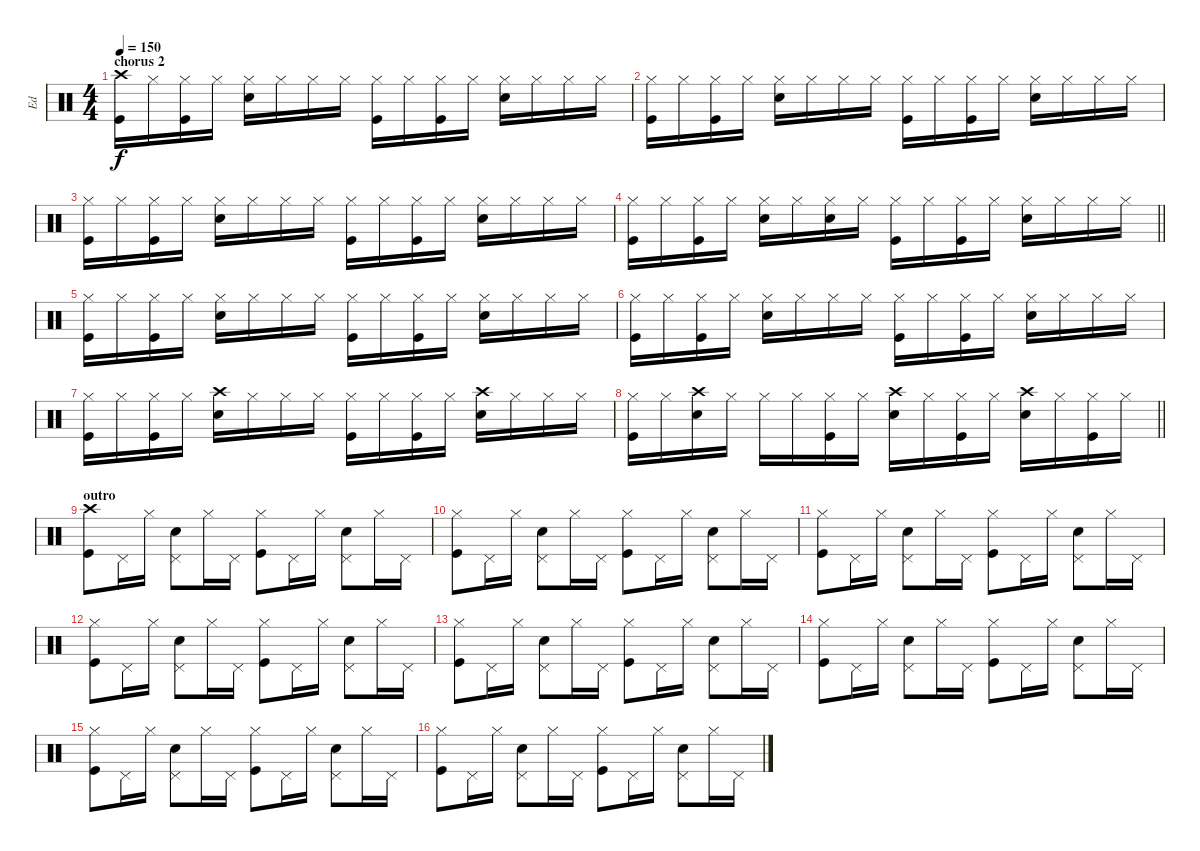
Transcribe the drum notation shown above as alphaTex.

\track ("Ed" "Ed") {instrument percussion}
\staff {score}
\articulation defaults
\ts (4 4)
\section ("" "chorus 2")
\tempo 150
\clef neutral
\ks c
("Crash high (hit)" "Kick (hit)").16{dy f} "Hi-Hat (closed)".16 ("Hi-Hat (closed)" "Kick (hit)").16 "Hi-Hat (closed)".16 ("Hi-Hat (closed)" "Electric Snare (hit)").16 "Hi-Hat (closed)".16 "Hi-Hat (closed)".16 "Hi-Hat (closed)".16 ("Hi-Hat (closed)" "Kick (hit)").16 "Hi-Hat (closed)".16 ("Hi-Hat (closed)" "Kick (hit)").16 "Hi-Hat (closed)".16 ("Hi-Hat (closed)" "Electric Snare (hit)").16 "Hi-Hat (closed)".16 "Hi-Hat (closed)".16 "Hi-Hat (closed)".16 |
("Hi-Hat (closed)" "Kick (hit)").16 "Hi-Hat (closed)".16 ("Hi-Hat (closed)" "Kick (hit)").16 "Hi-Hat (closed)".16 ("Hi-Hat (closed)" "Electric Snare (hit)").16 "Hi-Hat (closed)".16 "Hi-Hat (closed)".16 "Hi-Hat (closed)".16 ("Hi-Hat (closed)" "Kick (hit)").16 "Hi-Hat (closed)".16 ("Hi-Hat (closed)" "Kick (hit)").16 "Hi-Hat (closed)".16 ("Hi-Hat (closed)" "Electric Snare (hit)").16 "Hi-Hat (closed)".16 "Hi-Hat (closed)".16 "Hi-Hat (closed)".16 |
("Hi-Hat (closed)" "Kick (hit)").16 "Hi-Hat (closed)".16 ("Hi-Hat (closed)" "Kick (hit)").16 "Hi-Hat (closed)".16 ("Hi-Hat (closed)" "Electric Snare (hit)").16 "Hi-Hat (closed)".16 "Hi-Hat (closed)".16 "Hi-Hat (closed)".16 ("Hi-Hat (closed)" "Kick (hit)").16 "Hi-Hat (closed)".16 ("Hi-Hat (closed)" "Kick (hit)").16 "Hi-Hat (closed)".16 ("Hi-Hat (closed)" "Electric Snare (hit)").16 "Hi-Hat (closed)".16 "Hi-Hat (closed)".16 "Hi-Hat (closed)".16 |
\barLineRight lightlight
("Hi-Hat (closed)" "Kick (hit)").16 "Hi-Hat (closed)".16 ("Hi-Hat (closed)" "Kick (hit)").16 "Hi-Hat (closed)".16 ("Hi-Hat (closed)" "Electric Snare (hit)").16 "Hi-Hat (closed)".16 ("Hi-Hat (closed)" "Electric Snare (hit)").16 "Hi-Hat (closed)".16 ("Hi-Hat (closed)" "Kick (hit)").16 "Hi-Hat (closed)".16 ("Hi-Hat (closed)" "Kick (hit)").16 "Hi-Hat (closed)".16 ("Hi-Hat (closed)" "Electric Snare (hit)").16 "Hi-Hat (closed)".16 "Hi-Hat (closed)".16 "Hi-Hat (closed)".16 |
("Hi-Hat (closed)" "Kick (hit)").16 "Hi-Hat (closed)".16 ("Hi-Hat (closed)" "Kick (hit)").16 "Hi-Hat (closed)".16 ("Hi-Hat (closed)" "Electric Snare (hit)").16 "Hi-Hat (closed)".16 "Hi-Hat (closed)".16 "Hi-Hat (closed)".16 ("Hi-Hat (closed)" "Kick (hit)").16 "Hi-Hat (closed)".16 ("Hi-Hat (closed)" "Kick (hit)").16 "Hi-Hat (closed)".16 ("Hi-Hat (closed)" "Electric Snare (hit)").16 "Hi-Hat (closed)".16 "Hi-Hat (closed)".16 "Hi-Hat (closed)".16 |
("Hi-Hat (closed)" "Kick (hit)").16 "Hi-Hat (closed)".16 ("Hi-Hat (closed)" "Kick (hit)").16 "Hi-Hat (closed)".16 ("Hi-Hat (closed)" "Electric Snare (hit)").16 "Hi-Hat (closed)".16 "Hi-Hat (closed)".16 "Hi-Hat (closed)".16 ("Hi-Hat (closed)" "Kick (hit)").16 "Hi-Hat (closed)".16 ("Hi-Hat (closed)" "Kick (hit)").16 "Hi-Hat (closed)".16 ("Hi-Hat (closed)" "Electric Snare (hit)").16 "Hi-Hat (closed)".16 "Hi-Hat (closed)".16 "Hi-Hat (closed)".16 |
("Hi-Hat (closed)" "Kick (hit)").16 "Hi-Hat (closed)".16 ("Hi-Hat (closed)" "Kick (hit)").16 "Hi-Hat (closed)".16 ("Crash high (hit)" "Electric Snare (hit)").16 "Hi-Hat (closed)".16 "Hi-Hat (closed)".16 "Hi-Hat (closed)".16 ("Hi-Hat (closed)" "Kick (hit)").16 "Hi-Hat (closed)".16 ("Hi-Hat (closed)" "Kick (hit)").16 "Hi-Hat (closed)".16 ("Crash high (hit)" "Electric Snare (hit)").16 "Hi-Hat (closed)".16 "Hi-Hat (closed)".16 "Hi-Hat (closed)".16 |
\barLineRight lightlight
("Hi-Hat (closed)" "Kick (hit)").16 "Hi-Hat (closed)".16 ("Crash high (hit)" "Electric Snare (hit)").16 "Hi-Hat (closed)".16 "Hi-Hat (closed)".16 "Hi-Hat (closed)".16 ("Hi-Hat (closed)" "Kick (hit)").16 "Hi-Hat (closed)".16 ("Crash high (hit)" "Electric Snare (hit)").16 "Hi-Hat (closed)".16 ("Hi-Hat (closed)" "Kick (hit)").16 "Hi-Hat (closed)".16 ("Crash high (hit)" "Electric Snare (hit)").16 "Hi-Hat (closed)".16 ("Hi-Hat (closed)" "Kick (hit)").16 "Hi-Hat (closed)".16 |
\section ("" "outro")
("Crash high (hit)" "Kick (hit)").8 "Pedal Hi-Hat (hit)".16 "Hi-Hat (closed)".16 ("Pedal Hi-Hat (hit)" "Electric Snare (hit)").8 "Hi-Hat (closed)".16 "Pedal Hi-Hat (hit)".16 ("Hi-Hat (closed)" "Kick (hit)").8 "Pedal Hi-Hat (hit)".16 "Hi-Hat (closed)".16 ("Pedal Hi-Hat (hit)" "Electric Snare (hit)").8 "Hi-Hat (closed)".16 "Pedal Hi-Hat (hit)".16 |
("Hi-Hat (closed)" "Kick (hit)").8 "Pedal Hi-Hat (hit)".16 "Hi-Hat (closed)".16 ("Pedal Hi-Hat (hit)" "Electric Snare (hit)").8 "Hi-Hat (closed)".16 "Pedal Hi-Hat (hit)".16 ("Hi-Hat (closed)" "Kick (hit)").8 "Pedal Hi-Hat (hit)".16 "Hi-Hat (closed)".16 ("Pedal Hi-Hat (hit)" "Electric Snare (hit)").8 "Hi-Hat (closed)".16 "Pedal Hi-Hat (hit)".16 |
("Hi-Hat (closed)" "Kick (hit)").8 "Pedal Hi-Hat (hit)".16 "Hi-Hat (closed)".16 ("Pedal Hi-Hat (hit)" "Electric Snare (hit)").8 "Hi-Hat (closed)".16 "Pedal Hi-Hat (hit)".16 ("Hi-Hat (closed)" "Kick (hit)").8 "Pedal Hi-Hat (hit)".16 "Hi-Hat (closed)".16 ("Pedal Hi-Hat (hit)" "Electric Snare (hit)").8 "Hi-Hat (closed)".16 "Pedal Hi-Hat (hit)".16 |
("Hi-Hat (closed)" "Kick (hit)").8 "Pedal Hi-Hat (hit)".16 "Hi-Hat (closed)".16 ("Pedal Hi-Hat (hit)" "Electric Snare (hit)").8 "Hi-Hat (closed)".16 "Pedal Hi-Hat (hit)".16 ("Hi-Hat (closed)" "Kick (hit)").8 "Pedal Hi-Hat (hit)".16 "Hi-Hat (closed)".16 ("Pedal Hi-Hat (hit)" "Electric Snare (hit)").8 "Hi-Hat (closed)".16 "Pedal Hi-Hat (hit)".16 |
("Hi-Hat (closed)" "Kick (hit)").8 "Pedal Hi-Hat (hit)".16 "Hi-Hat (closed)".16 ("Pedal Hi-Hat (hit)" "Electric Snare (hit)").8 "Hi-Hat (closed)".16 "Pedal Hi-Hat (hit)".16 ("Hi-Hat (closed)" "Kick (hit)").8 "Pedal Hi-Hat (hit)".16 "Hi-Hat (closed)".16 ("Pedal Hi-Hat (hit)" "Electric Snare (hit)").8 "Hi-Hat (closed)".16 "Pedal Hi-Hat (hit)".16 |
("Hi-Hat (closed)" "Kick (hit)").8 "Pedal Hi-Hat (hit)".16 "Hi-Hat (closed)".16 ("Pedal Hi-Hat (hit)" "Electric Snare (hit)").8 "Hi-Hat (closed)".16 "Pedal Hi-Hat (hit)".16 ("Hi-Hat (closed)" "Kick (hit)").8 "Pedal Hi-Hat (hit)".16 "Hi-Hat (closed)".16 ("Pedal Hi-Hat (hit)" "Electric Snare (hit)").8 "Hi-Hat (closed)".16 "Pedal Hi-Hat (hit)".16 |
("Hi-Hat (closed)" "Kick (hit)").8 "Pedal Hi-Hat (hit)".16 "Hi-Hat (closed)".16 ("Pedal Hi-Hat (hit)" "Electric Snare (hit)").8 "Hi-Hat (closed)".16 "Pedal Hi-Hat (hit)".16 ("Hi-Hat (closed)" "Kick (hit)").8 "Pedal Hi-Hat (hit)".16 "Hi-Hat (closed)".16 ("Pedal Hi-Hat (hit)" "Electric Snare (hit)").8 "Hi-Hat (closed)".16 "Pedal Hi-Hat (hit)".16 |
("Hi-Hat (closed)" "Kick (hit)").8 "Pedal Hi-Hat (hit)".16 "Hi-Hat (closed)".16 ("Pedal Hi-Hat (hit)" "Electric Snare (hit)").8 "Hi-Hat (closed)".16 "Pedal Hi-Hat (hit)".16 ("Hi-Hat (closed)" "Kick (hit)").8 "Pedal Hi-Hat (hit)".16 "Hi-Hat (closed)".16 ("Pedal Hi-Hat (hit)" "Electric Snare (hit)").8 "Hi-Hat (closed)".16 "Pedal Hi-Hat (hit)".16
